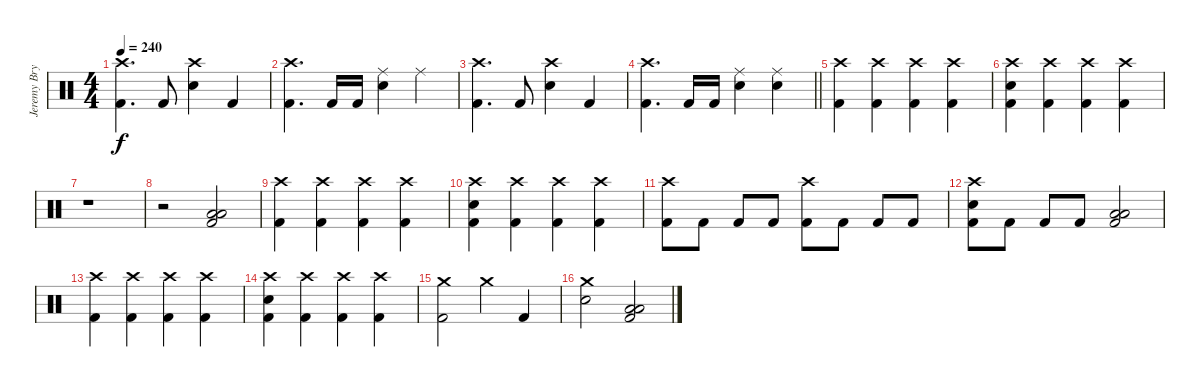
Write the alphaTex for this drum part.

\track ("Jeremy Bryan - Drums" "Jeremy Bry") {instrument percussion}
\staff {score}
\articulation defaults
\ts (4 4)
\tempo 240
\clef neutral
\ks c
("Crash high (hit)" "Kick (hit) 2").4{d dy f} "Kick (hit) 2".8 ("Crash high (hit)" "Electric Snare (hit)").4 "Kick (hit) 2".4 |
("Crash high (hit)" "Kick (hit) 2").4{d} "Kick (hit) 2".16 "Kick (hit) 2".16 ("Ride (middle)" "Electric Snare (hit)").4 "Ride (middle)".4 |
("Crash high (hit)" "Kick (hit) 2").4{d} "Kick (hit) 2".8 ("Crash high (hit)" "Electric Snare (hit)").4 "Kick (hit) 2".4 |
\barLineRight lightlight
("Crash high (hit)" "Kick (hit) 2").4{d} "Kick (hit) 2".16 "Kick (hit) 2".16 ("Ride (middle)" "Electric Snare (hit)").4 ("Ride (middle)" "Electric Snare (hit)").4 |
("Crash high (hit)" "Kick (hit) 2").4 ("Crash high (hit)" "Kick (hit) 2").4 ("Crash high (hit)" "Kick (hit) 2").4 ("Crash high (hit)" "Kick (hit) 2").4 |
("Crash high (hit)" "Electric Snare (hit)" "Kick (hit) 2").4 ("Crash high (hit)" "Kick (hit) 2").4 ("Crash high (hit)" "Kick (hit) 2").4 ("Crash high (hit)" "Kick (hit) 2").4 |
r.1 |
r.2 ("Low Tom (hit)" "Low Floor Tom (hit)" "Kick (hit) 2").2 |
("Crash high (hit)" "Kick (hit) 2").4 ("Crash high (hit)" "Kick (hit) 2").4 ("Crash high (hit)" "Kick (hit) 2").4 ("Crash high (hit)" "Kick (hit) 2").4 |
("Crash high (hit)" "Electric Snare (hit)" "Kick (hit) 2").4 ("Crash high (hit)" "Kick (hit) 2").4 ("Crash high (hit)" "Kick (hit) 2").4 ("Crash high (hit)" "Kick (hit) 2").4 |
("Crash high (hit)" "Kick (hit) 2").8 "Kick (hit) 2".8 "Kick (hit) 2".8 "Kick (hit) 2".8 ("Crash high (hit)" "Kick (hit) 2").8 "Kick (hit) 2".8 "Kick (hit) 2".8 "Kick (hit) 2".8 |
("Crash high (hit)" "Electric Snare (hit)" "Kick (hit) 2").8 "Kick (hit) 2".8 "Kick (hit) 2".8 "Kick (hit) 2".8 ("Low Tom (hit)" "Low Floor Tom (hit)" "Kick (hit) 2").2 |
("Crash high (hit)" "Kick (hit) 2").4 ("Crash high (hit)" "Kick (hit) 2").4 ("Crash high (hit)" "Kick (hit) 2").4 ("Crash high (hit)" "Kick (hit) 2").4 |
("Crash high (hit)" "Electric Snare (hit)" "Kick (hit) 2").4 ("Crash high (hit)" "Kick (hit) 2").4 ("Crash high (hit)" "Kick (hit) 2").4 ("Crash high (hit)" "Kick (hit) 2").4 |
("Crash medium (hit)" "Kick (hit) 2").2 "Crash medium (hit)".4 "Kick (hit) 2".4 |
("Crash medium (hit)" "Electric Snare (hit)").2 ("Low Tom (hit)" "Low Floor Tom (hit)" "Kick (hit) 2").2
